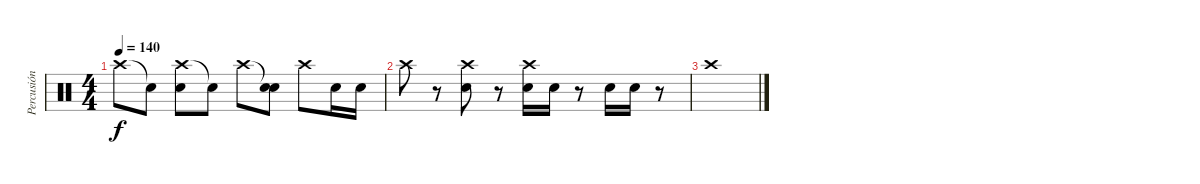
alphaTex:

\track ("Percusión" "Percusión") {instrument percussion}
\staff {score}
\articulation defaults
\ts (4 4)
\tempo 140
\clef neutral
\ks c "Crash high (hit)".8{dy f} "Snare (hit)"{t}.8
("Crash high (hit)" "Electric Snare (hit)").8 "Snare (hit)"{t}.8 "Crash high (hit)".8 ("Snare (hit)"{t} "Electric Snare (hit)").8 "Crash high (hit)".8 "Electric Snare (hit)".16 "Electric Snare (hit)".16 |
"Crash high (hit)".8 r.8 ("Crash high (hit)" "Electric Snare (hit)").8 r.8 ("Crash high (hit)" "Electric Snare (hit)").16 "Electric Snare (hit)".16 r.8 "Electric Snare (hit)".16 "Electric Snare (hit)".16 r.8 |
"Crash high (hit)".1
